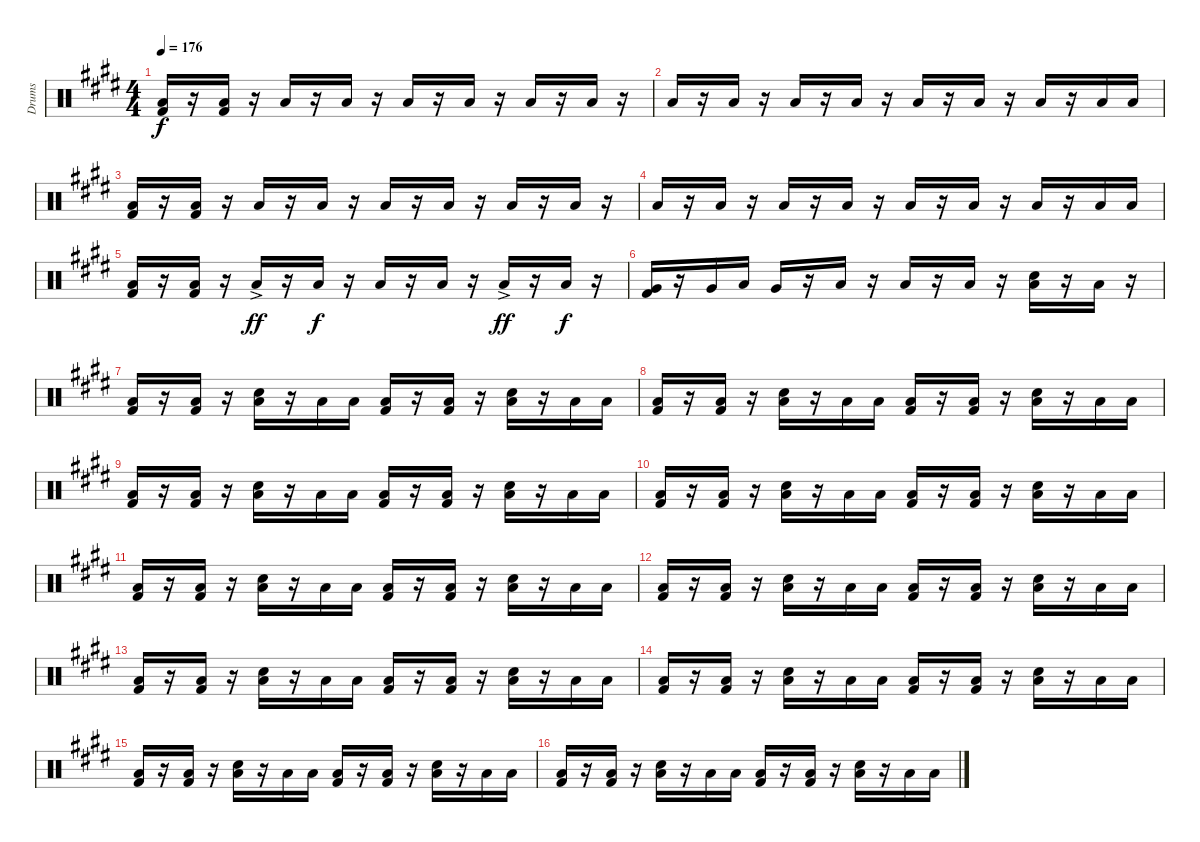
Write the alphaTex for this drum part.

\track ("Drums" "Drums") {instrument percussion}
\staff {score}
\articulation defaults
\ts (4 4)
\tempo 176
\clef neutral
\ks e
("Low Floor Tom (hit)" "Kick (hit) 2").16{dy f} r.16 ("Low Floor Tom (hit)" "Kick (hit) 2").16 r.16 "Low Floor Tom (hit)".16 r.16 "Low Floor Tom (hit)".16 r.16 "Low Floor Tom (hit)".16 r.16 "Low Floor Tom (hit)".16 r.16 "Low Floor Tom (hit)".16 r.16 "Low Floor Tom (hit)".16 r.16 |
"Low Floor Tom (hit)".16 r.16 "Low Floor Tom (hit)".16 r.16 "Low Floor Tom (hit)".16 r.16 "Low Floor Tom (hit)".16 r.16 "Low Floor Tom (hit)".16 r.16 "Low Floor Tom (hit)".16 r.16 "Low Floor Tom (hit)".16 r.16 "Low Floor Tom (hit)".16 "Low Floor Tom (hit)".16 |
("Low Floor Tom (hit)" "Kick (hit) 2").16 r.16 ("Low Floor Tom (hit)" "Kick (hit) 2").16 r.16 "Low Floor Tom (hit)".16 r.16 "Low Floor Tom (hit)".16 r.16 "Low Floor Tom (hit)".16 r.16 "Low Floor Tom (hit)".16 r.16 "Low Floor Tom (hit)".16 r.16 "Low Floor Tom (hit)".16 r.16 |
"Low Floor Tom (hit)".16 r.16 "Low Floor Tom (hit)".16 r.16 "Low Floor Tom (hit)".16 r.16 "Low Floor Tom (hit)".16 r.16 "Low Floor Tom (hit)".16 r.16 "Low Floor Tom (hit)".16 r.16 "Low Floor Tom (hit)".16 r.16 "Low Floor Tom (hit)".16 "Low Floor Tom (hit)".16 |
("Low Floor Tom (hit)" "Kick (hit) 2").16 r.16 ("Low Floor Tom (hit)" "Kick (hit) 2").16 r.16 "Low Floor Tom (hit)"{ac}.16{dy ff} r.16 "Low Floor Tom (hit)".16{dy f} r.16 "Low Floor Tom (hit)".16 r.16 "Low Floor Tom (hit)".16 r.16 "Low Floor Tom (hit)"{ac}.16{dy ff} r.16 "Low Floor Tom (hit)".16{dy f} r.16 |
("Very Low Tom (hit)" "Kick (hit) 2").16 r.16 "Very Low Tom (hit)".16 "Low Tom (hit)".16 "Very Low Tom (hit)".16 r.16 "Low Tom (hit)".16 r.16 "Low Floor Tom (hit)".16 r.16 "Low Floor Tom (hit)".16 r.16 ("Low Floor Tom (hit)" "Electric Snare (hit)").16 r.16 "Low Floor Tom (hit)".16 r.16 |
("Low Floor Tom (hit)" "Kick (hit) 2").16 r.16 ("Low Floor Tom (hit)" "Kick (hit) 2").16 r.16 ("Low Floor Tom (hit)" "Electric Snare (hit)").16 r.16 "Low Floor Tom (hit)".16 "Low Floor Tom (hit)".16 ("Low Floor Tom (hit)" "Kick (hit) 2").16 r.16 ("Low Floor Tom (hit)" "Kick (hit) 2").16 r.16 ("Low Floor Tom (hit)" "Electric Snare (hit)").16 r.16 "Low Floor Tom (hit)".16 "Low Floor Tom (hit)".16 |
("Low Floor Tom (hit)" "Kick (hit) 2").16 r.16 ("Low Floor Tom (hit)" "Kick (hit) 2").16 r.16 ("Low Floor Tom (hit)" "Electric Snare (hit)").16 r.16 "Low Floor Tom (hit)".16 "Low Floor Tom (hit)".16 ("Low Floor Tom (hit)" "Kick (hit) 2").16 r.16 ("Low Floor Tom (hit)" "Kick (hit) 2").16 r.16 ("Low Floor Tom (hit)" "Electric Snare (hit)").16 r.16 "Low Floor Tom (hit)".16 "Low Floor Tom (hit)".16 |
("Low Floor Tom (hit)" "Kick (hit) 2").16 r.16 ("Low Floor Tom (hit)" "Kick (hit) 2").16 r.16 ("Low Floor Tom (hit)" "Electric Snare (hit)").16 r.16 "Low Floor Tom (hit)".16 "Low Floor Tom (hit)".16 ("Low Floor Tom (hit)" "Kick (hit) 2").16 r.16 ("Low Floor Tom (hit)" "Kick (hit) 2").16 r.16 ("Low Floor Tom (hit)" "Electric Snare (hit)").16 r.16 "Low Floor Tom (hit)".16 "Low Floor Tom (hit)".16 |
("Low Floor Tom (hit)" "Kick (hit) 2").16 r.16 ("Low Floor Tom (hit)" "Kick (hit) 2").16 r.16 ("Low Floor Tom (hit)" "Electric Snare (hit)").16 r.16 "Low Floor Tom (hit)".16 "Low Floor Tom (hit)".16 ("Low Floor Tom (hit)" "Kick (hit) 2").16 r.16 ("Low Floor Tom (hit)" "Kick (hit) 2").16 r.16 ("Low Floor Tom (hit)" "Electric Snare (hit)").16 r.16 "Low Floor Tom (hit)".16 "Low Floor Tom (hit)".16 |
("Low Floor Tom (hit)" "Kick (hit) 2").16 r.16 ("Low Floor Tom (hit)" "Kick (hit) 2").16 r.16 ("Low Floor Tom (hit)" "Electric Snare (hit)").16 r.16 "Low Floor Tom (hit)".16 "Low Floor Tom (hit)".16 ("Low Floor Tom (hit)" "Kick (hit) 2").16 r.16 ("Low Floor Tom (hit)" "Kick (hit) 2").16 r.16 ("Low Floor Tom (hit)" "Electric Snare (hit)").16 r.16 "Low Floor Tom (hit)".16 "Low Floor Tom (hit)".16 |
("Low Floor Tom (hit)" "Kick (hit) 2").16 r.16 ("Low Floor Tom (hit)" "Kick (hit) 2").16 r.16 ("Low Floor Tom (hit)" "Electric Snare (hit)").16 r.16 "Low Floor Tom (hit)".16 "Low Floor Tom (hit)".16 ("Low Floor Tom (hit)" "Kick (hit) 2").16 r.16 ("Low Floor Tom (hit)" "Kick (hit) 2").16 r.16 ("Low Floor Tom (hit)" "Electric Snare (hit)").16 r.16 "Low Floor Tom (hit)".16 "Low Floor Tom (hit)".16 |
("Low Floor Tom (hit)" "Kick (hit) 2").16 r.16 ("Low Floor Tom (hit)" "Kick (hit) 2").16 r.16 ("Low Floor Tom (hit)" "Electric Snare (hit)").16 r.16 "Low Floor Tom (hit)".16 "Low Floor Tom (hit)".16 ("Low Floor Tom (hit)" "Kick (hit) 2").16 r.16 ("Low Floor Tom (hit)" "Kick (hit) 2").16 r.16 ("Low Floor Tom (hit)" "Electric Snare (hit)").16 r.16 "Low Floor Tom (hit)".16 "Low Floor Tom (hit)".16 |
("Low Floor Tom (hit)" "Kick (hit) 2").16 r.16 ("Low Floor Tom (hit)" "Kick (hit) 2").16 r.16 ("Low Floor Tom (hit)" "Electric Snare (hit)").16 r.16 "Low Floor Tom (hit)".16 "Low Floor Tom (hit)".16 ("Low Floor Tom (hit)" "Kick (hit) 2").16 r.16 ("Low Floor Tom (hit)" "Kick (hit) 2").16 r.16 ("Low Floor Tom (hit)" "Electric Snare (hit)").16 r.16 "Low Floor Tom (hit)".16 "Low Floor Tom (hit)".16 |
("Low Floor Tom (hit)" "Kick (hit) 2").16 r.16 ("Low Floor Tom (hit)" "Kick (hit) 2").16 r.16 ("Low Floor Tom (hit)" "Electric Snare (hit)").16 r.16 "Low Floor Tom (hit)".16 "Low Floor Tom (hit)".16 ("Low Floor Tom (hit)" "Kick (hit) 2").16 r.16 ("Low Floor Tom (hit)" "Kick (hit) 2").16 r.16 ("Low Floor Tom (hit)" "Electric Snare (hit)").16 r.16 "Low Floor Tom (hit)".16 "Low Floor Tom (hit)".16 |
("Low Floor Tom (hit)" "Kick (hit) 2").16 r.16 ("Low Floor Tom (hit)" "Kick (hit) 2").16 r.16 ("Low Floor Tom (hit)" "Electric Snare (hit)").16 r.16 "Low Floor Tom (hit)".16 "Low Floor Tom (hit)".16 ("Low Floor Tom (hit)" "Kick (hit) 2").16 r.16 ("Low Floor Tom (hit)" "Kick (hit) 2").16 r.16 ("Low Floor Tom (hit)" "Electric Snare (hit)").16 r.16 "Low Floor Tom (hit)".16 "Low Floor Tom (hit)".16
